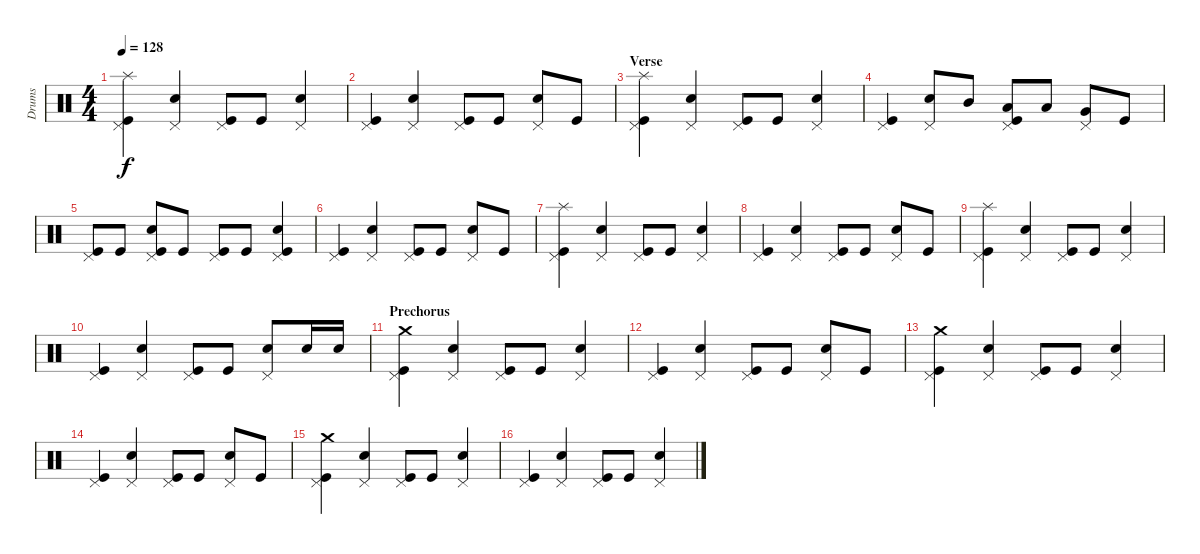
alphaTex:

\track ("Drums" "Drums") {instrument percussion}
\staff {score}
\articulation defaults
\ts (4 4)
\tempo 128
\clef neutral
\ks c
("Splash (hit)" "Pedal Hi-Hat (hit)" "Kick (hit)").4{dy f} ("Pedal Hi-Hat (hit)" "Electric Snare (hit)").4 ("Pedal Hi-Hat (hit)" "Kick (hit)").8 "Kick (hit)".8 ("Pedal Hi-Hat (hit)" "Electric Snare (hit)").4 |
("Pedal Hi-Hat (hit)" "Kick (hit)").4 ("Pedal Hi-Hat (hit)" "Electric Snare (hit)").4 ("Pedal Hi-Hat (hit)" "Kick (hit)").8 "Kick (hit)".8 ("Pedal Hi-Hat (hit)" "Electric Snare (hit)").8 "Kick (hit)".8 |
\section ("" "Verse")
("Splash (hit)" "Pedal Hi-Hat (hit)" "Kick (hit)").4 ("Pedal Hi-Hat (hit)" "Electric Snare (hit)").4 ("Pedal Hi-Hat (hit)" "Kick (hit)").8 "Kick (hit)".8 ("Pedal Hi-Hat (hit)" "Electric Snare (hit)").4 |
("Pedal Hi-Hat (hit)" "Kick (hit)").4 ("Pedal Hi-Hat (hit)" "Electric Snare (hit)").8 "Mid Tom (hit)".8 ("Pedal Hi-Hat (hit)" "Low Tom (hit)" "Kick (hit)").8 "Low Tom (hit)".8 ("Pedal Hi-Hat (hit)" "Very Low Tom (hit)").8 "Kick (hit)".8 |
("Pedal Hi-Hat (hit)" "Kick (hit)").8 "Kick (hit)".8 ("Pedal Hi-Hat (hit)" "Electric Snare (hit)" "Kick (hit)").8 "Kick (hit)".8 ("Pedal Hi-Hat (hit)" "Kick (hit)").8 "Kick (hit)".8 ("Pedal Hi-Hat (hit)" "Electric Snare (hit)" "Kick (hit)").4 |
("Pedal Hi-Hat (hit)" "Kick (hit)").4 ("Pedal Hi-Hat (hit)" "Electric Snare (hit)").4 ("Pedal Hi-Hat (hit)" "Kick (hit)").8 "Kick (hit)".8 ("Pedal Hi-Hat (hit)" "Electric Snare (hit)").8 "Kick (hit)".8 |
("Splash (hit)" "Pedal Hi-Hat (hit)" "Kick (hit)").4 ("Pedal Hi-Hat (hit)" "Electric Snare (hit)").4 ("Pedal Hi-Hat (hit)" "Kick (hit)").8 "Kick (hit)".8 ("Pedal Hi-Hat (hit)" "Electric Snare (hit)").4 |
("Pedal Hi-Hat (hit)" "Kick (hit)").4 ("Pedal Hi-Hat (hit)" "Electric Snare (hit)").4 ("Pedal Hi-Hat (hit)" "Kick (hit)").8 "Kick (hit)".8 ("Pedal Hi-Hat (hit)" "Electric Snare (hit)").8 "Kick (hit)".8 |
("Splash (hit)" "Pedal Hi-Hat (hit)" "Kick (hit)").4 ("Pedal Hi-Hat (hit)" "Electric Snare (hit)").4 ("Pedal Hi-Hat (hit)" "Kick (hit)").8 "Kick (hit)".8 ("Pedal Hi-Hat (hit)" "Electric Snare (hit)").4 |
("Pedal Hi-Hat (hit)" "Kick (hit)").4 ("Pedal Hi-Hat (hit)" "Electric Snare (hit)").4 ("Pedal Hi-Hat (hit)" "Kick (hit)").8 "Kick (hit)".8 ("Pedal Hi-Hat (hit)" "Electric Snare (hit)").8 "Electric Snare (hit)".16 "Electric Snare (hit)".16 |
\section ("" "Prechorus")
("Crash medium (hit)" "Pedal Hi-Hat (hit)" "Kick (hit)").4 ("Pedal Hi-Hat (hit)" "Electric Snare (hit)").4 ("Pedal Hi-Hat (hit)" "Kick (hit)").8 "Kick (hit)".8 ("Pedal Hi-Hat (hit)" "Electric Snare (hit)").4 |
("Pedal Hi-Hat (hit)" "Kick (hit)").4 ("Pedal Hi-Hat (hit)" "Electric Snare (hit)").4 ("Pedal Hi-Hat (hit)" "Kick (hit)").8 "Kick (hit)".8 ("Pedal Hi-Hat (hit)" "Electric Snare (hit)").8 "Kick (hit)".8 |
("Crash medium (hit)" "Pedal Hi-Hat (hit)" "Kick (hit)").4 ("Pedal Hi-Hat (hit)" "Electric Snare (hit)").4 ("Pedal Hi-Hat (hit)" "Kick (hit)").8 "Kick (hit)".8 ("Pedal Hi-Hat (hit)" "Electric Snare (hit)").4 |
("Pedal Hi-Hat (hit)" "Kick (hit)").4 ("Pedal Hi-Hat (hit)" "Electric Snare (hit)").4 ("Pedal Hi-Hat (hit)" "Kick (hit)").8 "Kick (hit)".8 ("Pedal Hi-Hat (hit)" "Electric Snare (hit)").8 "Kick (hit)".8 |
("Crash medium (hit)" "Pedal Hi-Hat (hit)" "Kick (hit)").4 ("Pedal Hi-Hat (hit)" "Electric Snare (hit)").4 ("Pedal Hi-Hat (hit)" "Kick (hit)").8 "Kick (hit)".8 ("Pedal Hi-Hat (hit)" "Electric Snare (hit)").4 |
("Pedal Hi-Hat (hit)" "Kick (hit)").4 ("Pedal Hi-Hat (hit)" "Electric Snare (hit)").4 ("Pedal Hi-Hat (hit)" "Kick (hit)").8 "Kick (hit)".8 ("Pedal Hi-Hat (hit)" "Electric Snare (hit)").4
